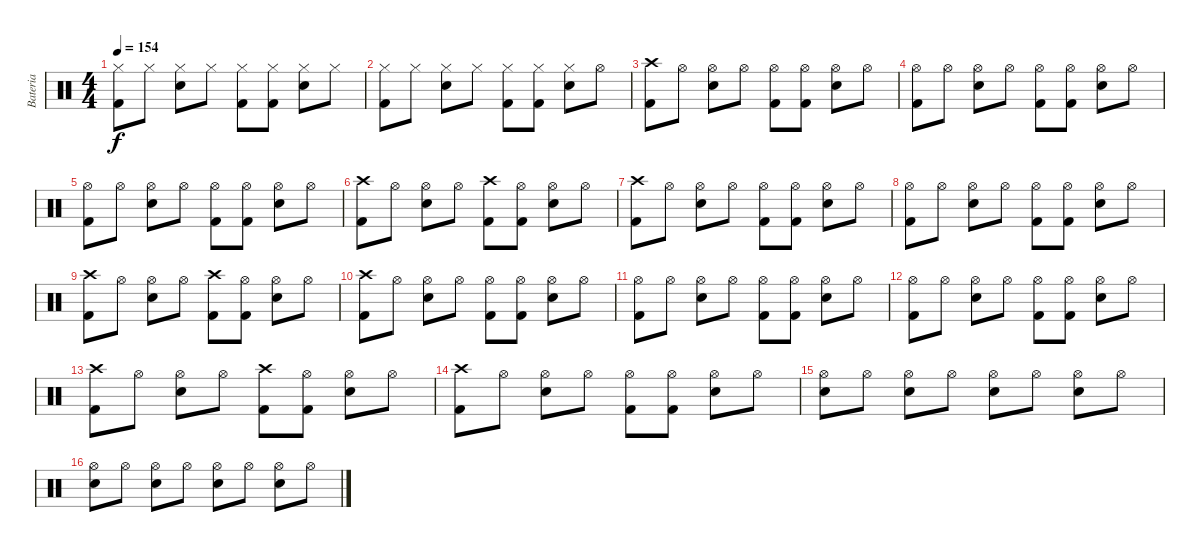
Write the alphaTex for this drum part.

\track ("Bateria" "Bateria") {instrument percussion}
\staff {score}
\articulation defaults
\ts (4 4)
\tempo 154
\clef neutral
\ks c
("Kick (hit) 2" "Hi-Hat (closed)").8{dy f} "Hi-Hat (closed)".8 ("Electric Snare (hit)" "Hi-Hat (closed)").8 "Hi-Hat (closed)".8 ("Kick (hit) 2" "Hi-Hat (closed)").8 ("Kick (hit) 2" "Hi-Hat (closed)").8 ("Electric Snare (hit)" "Hi-Hat (closed)").8 "Hi-Hat (closed)".8 |
("Kick (hit) 2" "Hi-Hat (closed)").8 "Hi-Hat (closed)".8 ("Electric Snare (hit)" "Hi-Hat (closed)").8 "Hi-Hat (closed)".8 ("Kick (hit) 2" "Hi-Hat (closed)").8 ("Kick (hit) 2" "Hi-Hat (closed)").8 ("Electric Snare (hit)" "Hi-Hat (closed)").8 "Hi-Hat (open)".8 |
("Kick (hit) 2" "Crash high (hit)").8 "Hi-Hat (open)".8 ("Electric Snare (hit)" "Hi-Hat (open)").8 "Hi-Hat (open)".8 ("Kick (hit) 2" "Hi-Hat (open)").8 ("Kick (hit) 2" "Hi-Hat (open)").8 ("Electric Snare (hit)" "Hi-Hat (open)").8 "Hi-Hat (open)".8 |
("Kick (hit) 2" "Hi-Hat (open)").8 "Hi-Hat (open)".8 ("Electric Snare (hit)" "Hi-Hat (open)").8 "Hi-Hat (open)".8 ("Kick (hit) 2" "Hi-Hat (open)").8 ("Kick (hit) 2" "Hi-Hat (open)").8 ("Electric Snare (hit)" "Hi-Hat (open)").8 "Hi-Hat (open)".8 |
("Kick (hit) 2" "Hi-Hat (open)").8 "Hi-Hat (open)".8 ("Electric Snare (hit)" "Hi-Hat (open)").8 "Hi-Hat (open)".8 ("Kick (hit) 2" "Hi-Hat (open)").8 ("Kick (hit) 2" "Hi-Hat (open)").8 ("Electric Snare (hit)" "Hi-Hat (open)").8 "Hi-Hat (open)".8 |
("Kick (hit) 2" "Crash high (hit)").8 "Hi-Hat (open)".8 ("Electric Snare (hit)" "Hi-Hat (open)").8 "Hi-Hat (open)".8 ("Kick (hit) 2" "Crash high (hit)").8 ("Kick (hit) 2" "Hi-Hat (open)").8 ("Electric Snare (hit)" "Hi-Hat (open)").8 "Hi-Hat (open)".8 |
("Kick (hit) 2" "Crash high (hit)").8 "Hi-Hat (open)".8 ("Electric Snare (hit)" "Hi-Hat (open)").8 "Hi-Hat (open)".8 ("Kick (hit) 2" "Hi-Hat (open)").8 ("Kick (hit) 2" "Hi-Hat (open)").8 ("Electric Snare (hit)" "Hi-Hat (open)").8 "Hi-Hat (open)".8 |
("Kick (hit) 2" "Hi-Hat (open)").8 "Hi-Hat (open)".8 ("Electric Snare (hit)" "Hi-Hat (open)").8 "Hi-Hat (open)".8 ("Kick (hit) 2" "Hi-Hat (open)").8 ("Kick (hit) 2" "Hi-Hat (open)").8 ("Electric Snare (hit)" "Hi-Hat (open)").8 "Hi-Hat (open)".8 |
("Kick (hit) 2" "Crash high (hit)").8 "Hi-Hat (open)".8 ("Electric Snare (hit)" "Hi-Hat (open)").8 "Hi-Hat (open)".8 ("Kick (hit) 2" "Crash high (hit)").8 ("Kick (hit) 2" "Hi-Hat (open)").8 ("Electric Snare (hit)" "Hi-Hat (open)").8 "Hi-Hat (open)".8 |
("Kick (hit) 2" "Crash high (hit)").8 "Hi-Hat (open)".8 ("Electric Snare (hit)" "Hi-Hat (open)").8 "Hi-Hat (open)".8 ("Kick (hit) 2" "Hi-Hat (open)").8 ("Kick (hit) 2" "Hi-Hat (open)").8 ("Electric Snare (hit)" "Hi-Hat (open)").8 "Hi-Hat (open)".8 |
("Kick (hit) 2" "Hi-Hat (open)").8 "Hi-Hat (open)".8 ("Electric Snare (hit)" "Hi-Hat (open)").8 "Hi-Hat (open)".8 ("Kick (hit) 2" "Hi-Hat (open)").8 ("Kick (hit) 2" "Hi-Hat (open)").8 ("Electric Snare (hit)" "Hi-Hat (open)").8 "Hi-Hat (open)".8 |
("Kick (hit) 2" "Hi-Hat (open)").8 "Hi-Hat (open)".8 ("Electric Snare (hit)" "Hi-Hat (open)").8 "Hi-Hat (open)".8 ("Kick (hit) 2" "Hi-Hat (open)").8 ("Kick (hit) 2" "Hi-Hat (open)").8 ("Electric Snare (hit)" "Hi-Hat (open)").8 "Hi-Hat (open)".8 |
("Kick (hit) 2" "Crash high (hit)").8 "Hi-Hat (open)".8 ("Electric Snare (hit)" "Hi-Hat (open)").8 "Hi-Hat (open)".8 ("Kick (hit) 2" "Crash high (hit)").8 ("Kick (hit) 2" "Hi-Hat (open)").8 ("Electric Snare (hit)" "Hi-Hat (open)").8 "Hi-Hat (open)".8 |
("Kick (hit) 2" "Crash high (hit)").8 "Hi-Hat (open)".8 ("Electric Snare (hit)" "Hi-Hat (open)").8 "Hi-Hat (open)".8 ("Kick (hit) 2" "Hi-Hat (open)").8 ("Kick (hit) 2" "Hi-Hat (open)").8 ("Electric Snare (hit)" "Hi-Hat (open)").8 "Hi-Hat (open)".8 |
("Electric Snare (hit)" "Hi-Hat (open)").8 "Hi-Hat (open)".8 ("Electric Snare (hit)" "Hi-Hat (open)").8 "Hi-Hat (open)".8 ("Electric Snare (hit)" "Hi-Hat (open)").8 "Hi-Hat (open)".8 ("Electric Snare (hit)" "Hi-Hat (open)").8 "Hi-Hat (open)".8 |
("Electric Snare (hit)" "Hi-Hat (open)").8 "Hi-Hat (open)".8 ("Electric Snare (hit)" "Hi-Hat (open)").8 "Hi-Hat (open)".8 ("Electric Snare (hit)" "Hi-Hat (open)").8 "Hi-Hat (open)".8 ("Electric Snare (hit)" "Hi-Hat (open)").8 "Hi-Hat (open)".8
